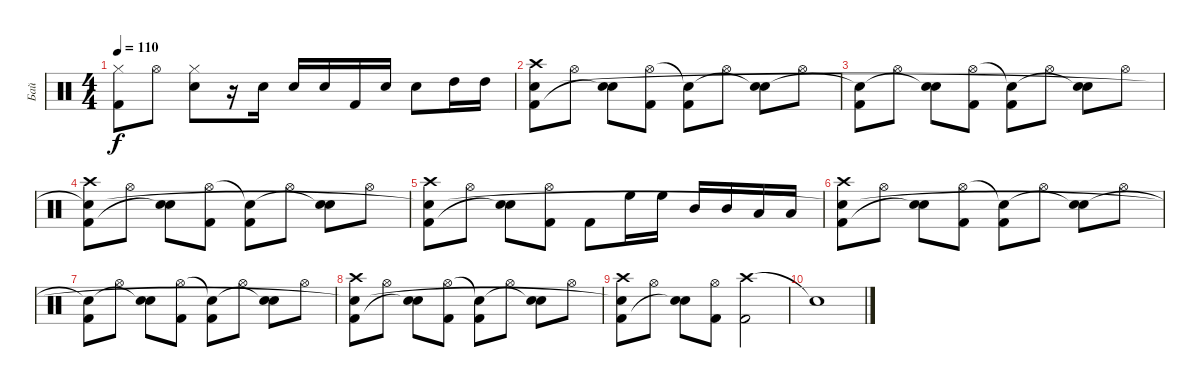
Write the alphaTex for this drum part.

\track ("Бай" "Бай") {instrument percussion}
\staff {score}
\articulation defaults
\ts (4 4)
\tempo 110
\clef neutral
\ks c
("Kick (hit) 2" "Hi-Hat (closed)").8{dy f} "Hi-Hat (open)".8 ("Electric Snare (hit)" "Hi-Hat (closed)").8 r.16 "Electric Snare (hit)".16 "Electric Snare (hit)".16 "Electric Snare (hit)".16 "Kick (hit) 2".16 "Electric Snare (hit)".16 "Electric Snare (hit)".8 "High Tom (hit)".16 "High Tom (hit)".16 |
("Crash high (hit)" "Kick (hit) 2" "Snare (hit)").8 "Hi-Hat (open)".8 ("Electric Snare (hit)" "Snare (hit)"{t}).8 ("Kick (hit) 2" "Hi-Hat (open)").8 ("Kick (hit) 2" "Snare (hit)"{t}).8 "Hi-Hat (open)".8 ("Electric Snare (hit)" "Snare (hit)"{t}).8 "Hi-Hat (open)".8 |
("Kick (hit) 2" "Snare (hit)"{t}).8 "Hi-Hat (open)".8 ("Electric Snare (hit)" "Snare (hit)"{t}).8 ("Kick (hit) 2" "Hi-Hat (open)").8 ("Kick (hit) 2" "Snare (hit)"{t}).8 "Hi-Hat (open)".8 ("Electric Snare (hit)" "Snare (hit)"{t}).8 "Hi-Hat (open)".8 |
("Crash high (hit)" "Kick (hit) 2" "Snare (hit)"{t}).8 "Hi-Hat (open)".8 ("Electric Snare (hit)" "Snare (hit)"{t}).8 ("Kick (hit) 2" "Hi-Hat (open)").8 ("Kick (hit) 2" "Snare (hit)"{t}).8 "Hi-Hat (open)".8 ("Electric Snare (hit)" "Snare (hit)"{t}).8 "Hi-Hat (open)".8 |
("Crash high (hit)" "Kick (hit) 2" "Snare (hit)"{t}).8 "Hi-Hat (open)".8 ("Electric Snare (hit)" "Snare (hit)"{t}).8 ("Kick (hit) 2" "Hi-Hat (open)").8 "Kick (hit) 2".8 "High Floor Tom (hit)".16 "High Floor Tom (hit)".16 "Mid Tom (hit)".16 "Mid Tom (hit)".16 "Low Tom (hit)".16 "Low Tom (hit)".16 |
("Crash high (hit)" "Kick (hit) 2" "Snare (hit)"{t}).8 "Hi-Hat (open)".8 ("Electric Snare (hit)" "Snare (hit)"{t}).8 ("Kick (hit) 2" "Hi-Hat (open)").8 ("Kick (hit) 2" "Snare (hit)"{t}).8 "Hi-Hat (open)".8 ("Electric Snare (hit)" "Snare (hit)"{t}).8 "Hi-Hat (open)".8 |
("Kick (hit) 2" "Snare (hit)"{t}).8 "Hi-Hat (open)".8 ("Electric Snare (hit)" "Snare (hit)"{t}).8 ("Kick (hit) 2" "Hi-Hat (open)").8 ("Kick (hit) 2" "Snare (hit)"{t}).8 "Hi-Hat (open)".8 ("Electric Snare (hit)" "Snare (hit)"{t}).8 "Hi-Hat (open)".8 |
("Crash high (hit)" "Kick (hit) 2" "Snare (hit)"{t}).8 "Hi-Hat (open)".8 ("Electric Snare (hit)" "Snare (hit)"{t}).8 ("Kick (hit) 2" "Hi-Hat (open)").8 ("Kick (hit) 2" "Snare (hit)"{t}).8 "Hi-Hat (open)".8 ("Electric Snare (hit)" "Snare (hit)"{t}).8 "Hi-Hat (open)".8 |
("Crash high (hit)" "Kick (hit) 2" "Snare (hit)"{t}).8 "Hi-Hat (open)".8 ("Electric Snare (hit)" "Snare (hit)"{t}).8 ("Kick (hit) 2" "Hi-Hat (open)").8 ("Crash high (hit)" "Kick (hit) 2").2 |
"Snare (hit)"{t}.1
